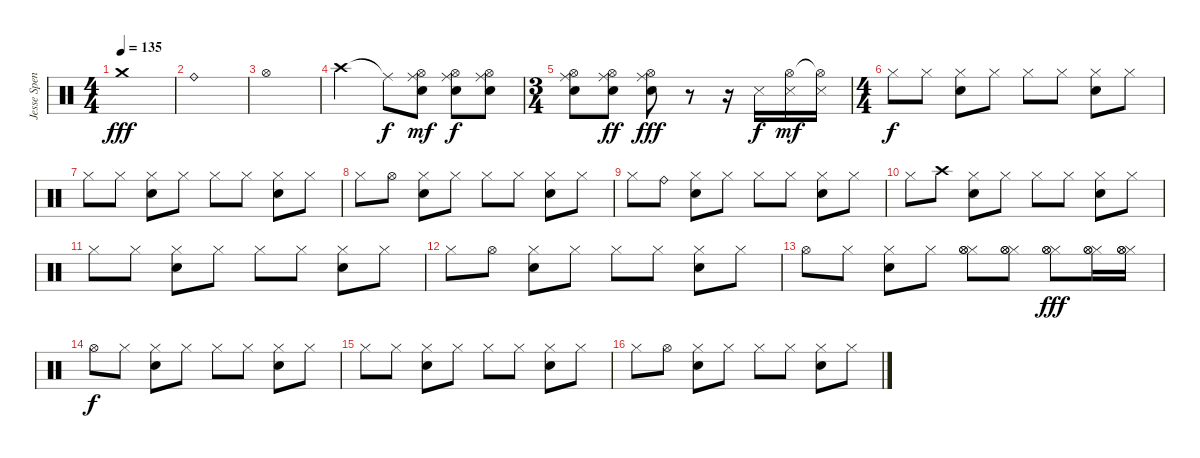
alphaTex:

\track ("Jesse Spence" "Jesse Spen") {instrument percussion}
\staff {score}
\articulation defaults
\ts (4 4)
\tempo 135
\clef neutral
\ks c "Crash medium (hit)".1{dy fff}
|
"Ride (bell)".1 |
"Hi-Hat (open)".1 |
"Crash high (hit)".2 "Ride (middle)"{t}.8{dy f} ("Snare (hit) 2" "Ride (middle)" "Hi-Hat (open)").8{dy mf} ("Snare (hit) 2" "Ride (middle)" "Hi-Hat (open)").8{dy f} ("Snare (hit) 2" "Ride (middle)" "Hi-Hat (open)").8 |
\ts (3 4)
("Snare (hit) 2" "Ride (middle)" "Hi-Hat (open)").8 ("Snare (hit) 2" "Ride (middle)" "Hi-Hat (open)").8{dy ff} ("Snare (hit) 2" "Ride (middle)" "Hi-Hat (open)").8{dy fff} r.8 r.16 "Snare (side stick) 3".16{dy f} ("Snare (side stick) 3" "Hi-Hat (open)").16{dy mf} ("Snare (side stick) 3" "Hi-Hat (open)"{t}).16 |
\ts (4 4)
"Hi-Hat (closed)".8{dy f} "Hi-Hat (closed)".8 ("Hi-Hat (closed)" "Snare (hit) 2").8 "Hi-Hat (closed)".8 "Hi-Hat (closed)".8 "Hi-Hat (closed)".8 ("Hi-Hat (closed)" "Snare (hit) 2").8 "Hi-Hat (closed)".8 |
"Hi-Hat (closed)".8 "Hi-Hat (closed)".8 ("Hi-Hat (closed)" "Snare (hit) 2").8 "Hi-Hat (closed)".8 "Hi-Hat (closed)".8 "Hi-Hat (closed)".8 ("Hi-Hat (closed)" "Snare (hit) 2").8 "Hi-Hat (closed)".8 |
"Hi-Hat (closed)".8 "Hi-Hat (open)".8 ("Hi-Hat (closed)" "Snare (hit) 2").8 "Hi-Hat (closed)".8 "Hi-Hat (closed)".8 "Hi-Hat (closed)".8 ("Hi-Hat (closed)" "Snare (hit) 2").8 "Hi-Hat (closed)".8 |
"Hi-Hat (closed)".8 "Ride (bell)".8 ("Hi-Hat (closed)" "Snare (hit) 2").8 "Hi-Hat (closed)".8 "Hi-Hat (closed)".8 "Hi-Hat (closed)".8 ("Hi-Hat (closed)" "Snare (hit) 2").8 "Hi-Hat (closed)".8 |
"Hi-Hat (closed)".8 "Crash high (hit)".8 ("Hi-Hat (closed)" "Snare (hit) 2").8 "Hi-Hat (closed)".8 "Hi-Hat (closed)".8 "Hi-Hat (closed)".8 ("Hi-Hat (closed)" "Snare (hit) 2").8 "Hi-Hat (closed)".8 |
"Hi-Hat (closed)".8 "Hi-Hat (closed)".8 ("Hi-Hat (closed)" "Snare (hit) 2").8 "Hi-Hat (closed)".8 "Hi-Hat (closed)".8 "Hi-Hat (closed)".8 ("Hi-Hat (closed)" "Snare (hit) 2").8 "Hi-Hat (closed)".8 |
"Hi-Hat (closed)".8 "Hi-Hat (open)".8 ("Hi-Hat (closed)" "Snare (hit) 2").8 "Hi-Hat (closed)".8 "Hi-Hat (closed)".8 "Hi-Hat (closed)".8 ("Hi-Hat (closed)" "Snare (hit) 2").8 "Hi-Hat (closed)".8 |
"Hi-Hat (open)".8 "Hi-Hat (closed)".8 ("Hi-Hat (closed)" "Snare (hit) 2").8 "Hi-Hat (closed)".8 ("Hi-Hat (closed)" "Hi-Hat (open)" "Hi-Hat (open)").8 ("Hi-Hat (closed)" "Hi-Hat (open)" "Hi-Hat (open)").8 ("Hi-Hat (closed)" "Hi-Hat (open)" "Hi-Hat (open)").8{dy fff} ("Hi-Hat (closed)" "Hi-Hat (open)" "Hi-Hat (open)").16 ("Hi-Hat (closed)" "Hi-Hat (open)" "Hi-Hat (open)").16 |
"Hi-Hat (open)".8{dy f} "Hi-Hat (closed)".8 ("Hi-Hat (closed)" "Snare (hit) 2").8 "Hi-Hat (closed)".8 "Hi-Hat (closed)".8 "Hi-Hat (closed)".8 ("Hi-Hat (closed)" "Snare (hit) 2").8 "Hi-Hat (closed)".8 |
"Hi-Hat (closed)".8 "Hi-Hat (closed)".8 ("Hi-Hat (closed)" "Snare (hit) 2").8 "Hi-Hat (closed)".8 "Hi-Hat (closed)".8 "Hi-Hat (closed)".8 ("Hi-Hat (closed)" "Snare (hit) 2").8 "Hi-Hat (closed)".8 |
"Hi-Hat (closed)".8 "Hi-Hat (open)".8 ("Hi-Hat (closed)" "Snare (hit) 2").8 "Hi-Hat (closed)".8 "Hi-Hat (closed)".8 "Hi-Hat (closed)".8 ("Hi-Hat (closed)" "Snare (hit) 2").8 "Hi-Hat (closed)".8
